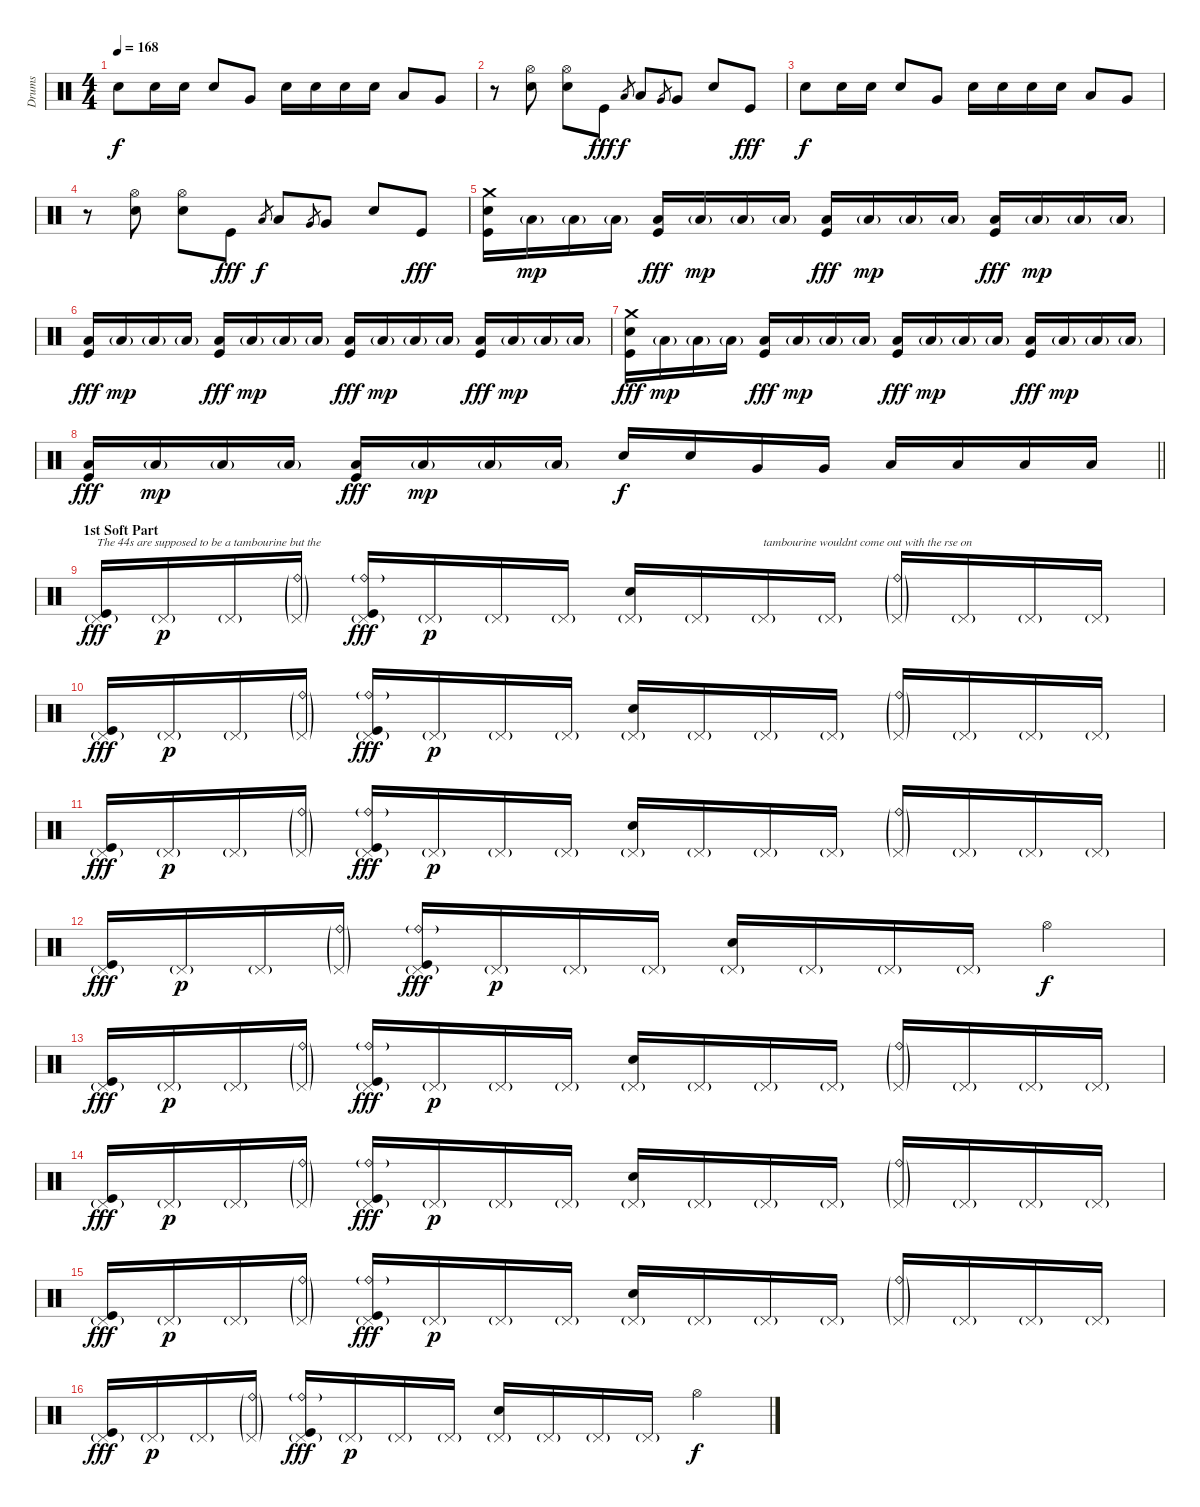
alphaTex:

\track ("Drums" "Drums") {instrument percussion}
\staff {score}
\articulation defaults
\ts (4 4)
\tempo 168
\clef neutral
\ks c "Snare (hit) 2".8{dy f} "Snare (hit) 2".16 "Snare (hit) 2".16 "Snare (hit) 2".8 "Very Low Tom (hit)".8 "Snare (hit) 2".16 "Snare (hit) 2".16 "Snare (hit) 2".16 "Snare (hit) 2".16 "Low Tom (hit)".8 "Very Low Tom (hit)".8
|
r.8 ("Hi-Hat (open)" "Snare (hit) 2").8 ("Hi-Hat (open)" "Snare (hit) 2").8 "Kick (hit)".8{dy fff} "Low Tom (hit)".8{gr dy f} "Low Tom (hit)".8 "Very Low Tom (hit)".8{gr} "Very Low Tom (hit)".8 "Snare (hit) 2".8 "Kick (hit)".8{dy fff} |
"Snare (hit) 2".8{dy f} "Snare (hit) 2".16 "Snare (hit) 2".16 "Snare (hit) 2".8 "Very Low Tom (hit)".8 "Snare (hit) 2".16 "Snare (hit) 2".16 "Snare (hit) 2".16 "Snare (hit) 2".16 "Low Tom (hit)".8 "Very Low Tom (hit)".8 |
r.8 ("Hi-Hat (open)" "Snare (hit) 2").8 ("Hi-Hat (open)" "Snare (hit) 2").8 "Kick (hit)".8{dy fff} "Low Tom (hit)".8{gr dy f} "Low Tom (hit)".8 "Very Low Tom (hit)".8{gr} "Very Low Tom (hit)".8 "Snare (hit) 2".8 "Kick (hit)".8{dy fff} |
("Crash medium (hit)" "Snare (hit) 2" "Kick (hit)").16 "Low Floor Tom (hit)"{g}.16{dy mp} "Low Floor Tom (hit)"{g}.16 "Low Floor Tom (hit)"{g}.16 ("Low Floor Tom (hit)" "Kick (hit)").16{dy fff} "Low Floor Tom (hit)"{g}.16{dy mp} "Low Floor Tom (hit)"{g}.16 "Low Floor Tom (hit)"{g}.16 ("Low Floor Tom (hit)" "Kick (hit)").16{dy fff} "Low Floor Tom (hit)"{g}.16{dy mp} "Low Floor Tom (hit)"{g}.16 "Low Floor Tom (hit)"{g}.16 ("Low Floor Tom (hit)" "Kick (hit)").16{dy fff} "Low Floor Tom (hit)"{g}.16{dy mp} "Low Floor Tom (hit)"{g}.16 "Low Floor Tom (hit)"{g}.16 |
("Low Floor Tom (hit)" "Kick (hit)").16{dy fff} "Low Floor Tom (hit)"{g}.16{dy mp} "Low Floor Tom (hit)"{g}.16 "Low Floor Tom (hit)"{g}.16 ("Low Floor Tom (hit)" "Kick (hit)").16{dy fff} "Low Floor Tom (hit)"{g}.16{dy mp} "Low Floor Tom (hit)"{g}.16 "Low Floor Tom (hit)"{g}.16 ("Low Floor Tom (hit)" "Kick (hit)").16{dy fff} "Low Floor Tom (hit)"{g}.16{dy mp} "Low Floor Tom (hit)"{g}.16 "Low Floor Tom (hit)"{g}.16 ("Low Floor Tom (hit)" "Kick (hit)").16{dy fff} "Low Floor Tom (hit)"{g}.16{dy mp} "Low Floor Tom (hit)"{g}.16 "Low Floor Tom (hit)"{g}.16 |
("Crash medium (hit)" "Snare (hit) 2" "Kick (hit)").16{dy fff} "Low Floor Tom (hit)"{g}.16{dy mp} "Low Floor Tom (hit)"{g}.16 "Low Floor Tom (hit)"{g}.16 ("Low Floor Tom (hit)" "Kick (hit)").16{dy fff} "Low Floor Tom (hit)"{g}.16{dy mp} "Low Floor Tom (hit)"{g}.16 "Low Floor Tom (hit)"{g}.16 ("Low Floor Tom (hit)" "Kick (hit)").16{dy fff} "Low Floor Tom (hit)"{g}.16{dy mp} "Low Floor Tom (hit)"{g}.16 "Low Floor Tom (hit)"{g}.16 ("Low Floor Tom (hit)" "Kick (hit)").16{dy fff} "Low Floor Tom (hit)"{g}.16{dy mp} "Low Floor Tom (hit)"{g}.16 "Low Floor Tom (hit)"{g}.16 |
\barLineRight lightlight
("Low Floor Tom (hit)" "Kick (hit)").16{dy fff} "Low Floor Tom (hit)"{g}.16{dy mp} "Low Floor Tom (hit)"{g}.16 "Low Floor Tom (hit)"{g}.16 ("Low Floor Tom (hit)" "Kick (hit)").16{dy fff} "Low Floor Tom (hit)"{g}.16{dy mp} "Low Floor Tom (hit)"{g}.16 "Low Floor Tom (hit)"{g}.16 "Snare (hit) 2".16{dy f} "Snare (hit) 2".16 "Very Low Tom (hit)".16 "Very Low Tom (hit)".16 "Low Tom (hit)".16 "Low Tom (hit)".16 "Low Floor Tom (hit)".16 "Low Floor Tom (hit)".16 |
\section ("" "1st Soft Part")
("Pedal Hi-Hat (hit)"{g} "Kick (hit)").16{txt "The 44s are supposed to be a tambourine but the" dy fff} "Pedal Hi-Hat (hit)"{g}.16{dy p} "Pedal Hi-Hat (hit)"{g}.16 ("Ride (bell)"{g} "Pedal Hi-Hat (hit)"{g}).16 ("Ride (bell)"{g} "Pedal Hi-Hat (hit)"{g} "Kick (hit)").16{dy fff} "Pedal Hi-Hat (hit)"{g}.16{dy p} "Pedal Hi-Hat (hit)"{g}.16 "Pedal Hi-Hat (hit)"{g}.16 ("Pedal Hi-Hat (hit)"{g} "Snare (hit) 2").16 "Pedal Hi-Hat (hit)"{g}.16 "Pedal Hi-Hat (hit)"{g}.16{txt "tambourine wouldnt come out with the rse on"} "Pedal Hi-Hat (hit)"{g}.16 ("Ride (bell)"{g} "Pedal Hi-Hat (hit)"{g}).16 "Pedal Hi-Hat (hit)"{g}.16 "Pedal Hi-Hat (hit)"{g}.16 "Pedal Hi-Hat (hit)"{g}.16 |
("Pedal Hi-Hat (hit)"{g} "Kick (hit)").16{dy fff} "Pedal Hi-Hat (hit)"{g}.16{dy p} "Pedal Hi-Hat (hit)"{g}.16 ("Ride (bell)"{g} "Pedal Hi-Hat (hit)"{g}).16 ("Ride (bell)"{g} "Pedal Hi-Hat (hit)"{g} "Kick (hit)").16{dy fff} "Pedal Hi-Hat (hit)"{g}.16{dy p} "Pedal Hi-Hat (hit)"{g}.16 "Pedal Hi-Hat (hit)"{g}.16 ("Pedal Hi-Hat (hit)"{g} "Snare (hit) 2").16 "Pedal Hi-Hat (hit)"{g}.16 "Pedal Hi-Hat (hit)"{g}.16 "Pedal Hi-Hat (hit)"{g}.16 ("Ride (bell)"{g} "Pedal Hi-Hat (hit)"{g}).16 "Pedal Hi-Hat (hit)"{g}.16 "Pedal Hi-Hat (hit)"{g}.16 "Pedal Hi-Hat (hit)"{g}.16 |
("Pedal Hi-Hat (hit)"{g} "Kick (hit)").16{dy fff} "Pedal Hi-Hat (hit)"{g}.16{dy p} "Pedal Hi-Hat (hit)"{g}.16 ("Ride (bell)"{g} "Pedal Hi-Hat (hit)"{g}).16 ("Ride (bell)"{g} "Pedal Hi-Hat (hit)"{g} "Kick (hit)").16{dy fff} "Pedal Hi-Hat (hit)"{g}.16{dy p} "Pedal Hi-Hat (hit)"{g}.16 "Pedal Hi-Hat (hit)"{g}.16 ("Pedal Hi-Hat (hit)"{g} "Snare (hit) 2").16 "Pedal Hi-Hat (hit)"{g}.16 "Pedal Hi-Hat (hit)"{g}.16 "Pedal Hi-Hat (hit)"{g}.16 ("Ride (bell)"{g} "Pedal Hi-Hat (hit)"{g}).16 "Pedal Hi-Hat (hit)"{g}.16 "Pedal Hi-Hat (hit)"{g}.16 "Pedal Hi-Hat (hit)"{g}.16 |
("Pedal Hi-Hat (hit)"{g} "Kick (hit)").16{dy fff} "Pedal Hi-Hat (hit)"{g}.16{dy p} "Pedal Hi-Hat (hit)"{g}.16 ("Ride (bell)"{g} "Pedal Hi-Hat (hit)"{g}).16 ("Ride (bell)"{g} "Pedal Hi-Hat (hit)"{g} "Kick (hit)").16{dy fff} "Pedal Hi-Hat (hit)"{g}.16{dy p} "Pedal Hi-Hat (hit)"{g}.16 "Pedal Hi-Hat (hit)"{g}.16 ("Pedal Hi-Hat (hit)"{g} "Snare (hit) 2").16 "Pedal Hi-Hat (hit)"{g}.16 "Pedal Hi-Hat (hit)"{g}.16 "Pedal Hi-Hat (hit)"{g}.16 "Hi-Hat (open)".4{dy f} |
("Pedal Hi-Hat (hit)"{g} "Kick (hit)").16{dy fff} "Pedal Hi-Hat (hit)"{g}.16{dy p} "Pedal Hi-Hat (hit)"{g}.16 ("Ride (bell)"{g} "Pedal Hi-Hat (hit)"{g}).16 ("Ride (bell)"{g} "Pedal Hi-Hat (hit)"{g} "Kick (hit)").16{dy fff} "Pedal Hi-Hat (hit)"{g}.16{dy p} "Pedal Hi-Hat (hit)"{g}.16 "Pedal Hi-Hat (hit)"{g}.16 ("Pedal Hi-Hat (hit)"{g} "Snare (hit) 2").16 "Pedal Hi-Hat (hit)"{g}.16 "Pedal Hi-Hat (hit)"{g}.16 "Pedal Hi-Hat (hit)"{g}.16 ("Ride (bell)"{g} "Pedal Hi-Hat (hit)"{g}).16 "Pedal Hi-Hat (hit)"{g}.16 "Pedal Hi-Hat (hit)"{g}.16 "Pedal Hi-Hat (hit)"{g}.16 |
("Pedal Hi-Hat (hit)"{g} "Kick (hit)").16{dy fff} "Pedal Hi-Hat (hit)"{g}.16{dy p} "Pedal Hi-Hat (hit)"{g}.16 ("Ride (bell)"{g} "Pedal Hi-Hat (hit)"{g}).16 ("Ride (bell)"{g} "Pedal Hi-Hat (hit)"{g} "Kick (hit)").16{dy fff} "Pedal Hi-Hat (hit)"{g}.16{dy p} "Pedal Hi-Hat (hit)"{g}.16 "Pedal Hi-Hat (hit)"{g}.16 ("Pedal Hi-Hat (hit)"{g} "Snare (hit) 2").16 "Pedal Hi-Hat (hit)"{g}.16 "Pedal Hi-Hat (hit)"{g}.16 "Pedal Hi-Hat (hit)"{g}.16 ("Ride (bell)"{g} "Pedal Hi-Hat (hit)"{g}).16 "Pedal Hi-Hat (hit)"{g}.16 "Pedal Hi-Hat (hit)"{g}.16 "Pedal Hi-Hat (hit)"{g}.16 |
("Pedal Hi-Hat (hit)"{g} "Kick (hit)").16{dy fff} "Pedal Hi-Hat (hit)"{g}.16{dy p} "Pedal Hi-Hat (hit)"{g}.16 ("Ride (bell)"{g} "Pedal Hi-Hat (hit)"{g}).16 ("Ride (bell)"{g} "Pedal Hi-Hat (hit)"{g} "Kick (hit)").16{dy fff} "Pedal Hi-Hat (hit)"{g}.16{dy p} "Pedal Hi-Hat (hit)"{g}.16 "Pedal Hi-Hat (hit)"{g}.16 ("Pedal Hi-Hat (hit)"{g} "Snare (hit) 2").16 "Pedal Hi-Hat (hit)"{g}.16 "Pedal Hi-Hat (hit)"{g}.16 "Pedal Hi-Hat (hit)"{g}.16 ("Ride (bell)"{g} "Pedal Hi-Hat (hit)"{g}).16 "Pedal Hi-Hat (hit)"{g}.16 "Pedal Hi-Hat (hit)"{g}.16 "Pedal Hi-Hat (hit)"{g}.16 |
("Pedal Hi-Hat (hit)"{g} "Kick (hit)").16{dy fff} "Pedal Hi-Hat (hit)"{g}.16{dy p} "Pedal Hi-Hat (hit)"{g}.16 ("Ride (bell)"{g} "Pedal Hi-Hat (hit)"{g}).16 ("Ride (bell)"{g} "Pedal Hi-Hat (hit)"{g} "Kick (hit)").16{dy fff} "Pedal Hi-Hat (hit)"{g}.16{dy p} "Pedal Hi-Hat (hit)"{g}.16 "Pedal Hi-Hat (hit)"{g}.16 ("Pedal Hi-Hat (hit)"{g} "Snare (hit) 2").16 "Pedal Hi-Hat (hit)"{g}.16 "Pedal Hi-Hat (hit)"{g}.16 "Pedal Hi-Hat (hit)"{g}.16 "Hi-Hat (open)".4{dy f}
